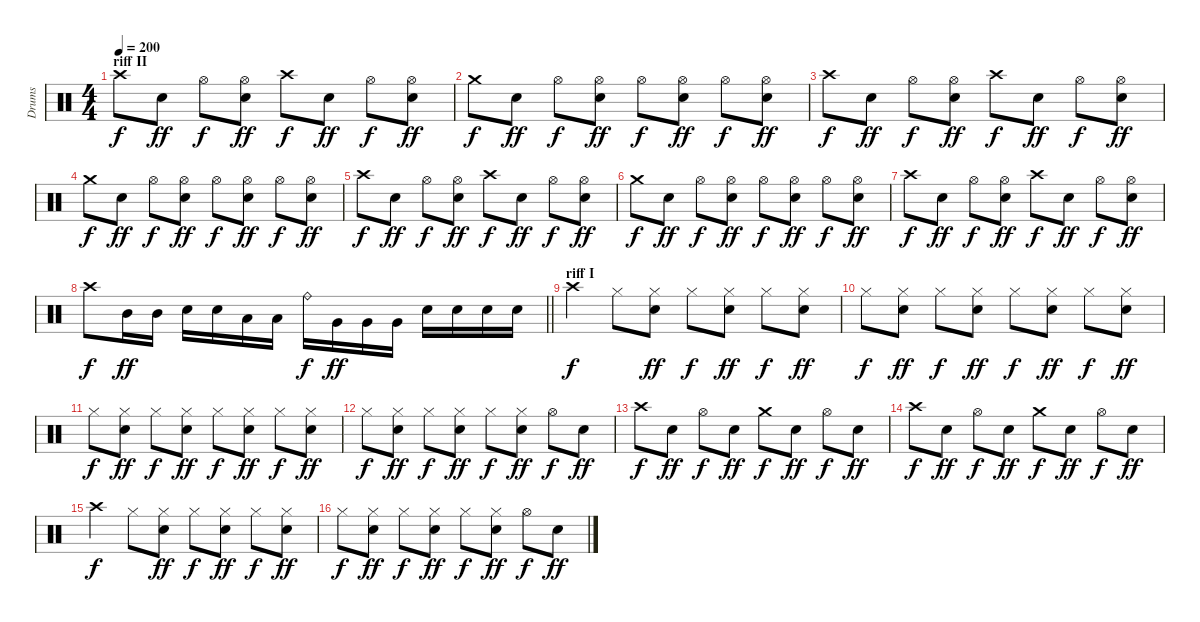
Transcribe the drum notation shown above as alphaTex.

\track ("Drums" "Drums") {instrument percussion}
\staff {score}
\articulation defaults
\ts (4 4)
\section ("" "riff II")
\tempo 200
\clef neutral
\ks c "Crash high (hit)".8{dy f} "Snare (hit) 2".8{dy ff} "Hi-Hat (open)".8{dy f}
("Hi-Hat (open)" "Snare (hit) 2").8{dy ff} "Crash high (hit)".8{dy f} "Snare (hit) 2".8{dy ff} "Hi-Hat (open)".8{dy f} ("Hi-Hat (open)" "Snare (hit) 2").8{dy ff} |
"Crash medium (hit)".8{dy f} "Snare (hit) 2".8{dy ff} "Hi-Hat (open)".8{dy f} ("Hi-Hat (open)" "Snare (hit) 2").8{dy ff} "Hi-Hat (open)".8{dy f} ("Hi-Hat (open)" "Snare (hit) 2").8{dy ff} "Hi-Hat (open)".8{dy f} ("Hi-Hat (open)" "Snare (hit) 2").8{dy ff} |
"Crash high (hit)".8{dy f} "Snare (hit) 2".8{dy ff} "Hi-Hat (open)".8{dy f} ("Hi-Hat (open)" "Snare (hit) 2").8{dy ff} "Crash high (hit)".8{dy f} "Snare (hit) 2".8{dy ff} "Hi-Hat (open)".8{dy f} ("Hi-Hat (open)" "Snare (hit) 2").8{dy ff} |
"Crash medium (hit)".8{dy f} "Snare (hit) 2".8{dy ff} "Hi-Hat (open)".8{dy f} ("Hi-Hat (open)" "Snare (hit) 2").8{dy ff} "Hi-Hat (open)".8{dy f} ("Hi-Hat (open)" "Snare (hit) 2").8{dy ff} "Hi-Hat (open)".8{dy f} ("Hi-Hat (open)" "Snare (hit) 2").8{dy ff} |
"Crash high (hit)".8{dy f} "Snare (hit) 2".8{dy ff} "Hi-Hat (open)".8{dy f} ("Hi-Hat (open)" "Snare (hit) 2").8{dy ff} "Crash high (hit)".8{dy f} "Snare (hit) 2".8{dy ff} "Hi-Hat (open)".8{dy f} ("Hi-Hat (open)" "Snare (hit) 2").8{dy ff} |
"Crash medium (hit)".8{dy f} "Snare (hit) 2".8{dy ff} "Hi-Hat (open)".8{dy f} ("Hi-Hat (open)" "Snare (hit) 2").8{dy ff} "Hi-Hat (open)".8{dy f} ("Hi-Hat (open)" "Snare (hit) 2").8{dy ff} "Hi-Hat (open)".8{dy f} ("Hi-Hat (open)" "Snare (hit) 2").8{dy ff} |
"Crash high (hit)".8{dy f} "Snare (hit) 2".8{dy ff} "Hi-Hat (open)".8{dy f} ("Hi-Hat (open)" "Snare (hit) 2").8{dy ff} "Crash high (hit)".8{dy f} "Snare (hit) 2".8{dy ff} "Hi-Hat (open)".8{dy f} ("Hi-Hat (open)" "Snare (hit) 2").8{dy ff} |
\barLineRight lightlight "Crash high (hit)".8{dy f} "Mid Tom (hit)".16{dy ff} "Mid Tom (hit)".16 "Snare (hit) 2".16 "Snare (hit) 2".16 "Low Tom (hit)".16 "Low Tom (hit)".16 "Ride (bell)".16{dy f} "Very Low Tom (hit)".16{dy ff} "Very Low Tom (hit)".16 "Very Low Tom (hit)".16 "Snare (hit) 2".16 "Snare (hit) 2".16 "Snare (hit) 2".16 "Snare (hit) 2".16
|
\section ("" "riff I")
"Crash high (hit)".4{dy f} "Hi-Hat (closed)".8 ("Hi-Hat (closed)" "Snare (hit) 2").8{dy ff} "Hi-Hat (closed)".8{dy f} ("Hi-Hat (closed)" "Snare (hit) 2").8{dy ff} "Hi-Hat (closed)".8{dy f} ("Hi-Hat (closed)" "Snare (hit) 2").8{dy ff} |
"Hi-Hat (closed)".8{dy f} ("Hi-Hat (closed)" "Snare (hit) 2").8{dy ff} "Hi-Hat (closed)".8{dy f} ("Hi-Hat (closed)" "Snare (hit) 2").8{dy ff} "Hi-Hat (closed)".8{dy f} ("Hi-Hat (closed)" "Snare (hit) 2").8{dy ff} "Hi-Hat (closed)".8{dy f} ("Hi-Hat (closed)" "Snare (hit) 2").8{dy ff} |
"Hi-Hat (closed)".8{dy f} ("Hi-Hat (closed)" "Snare (hit) 2").8{dy ff} "Hi-Hat (closed)".8{dy f} ("Hi-Hat (closed)" "Snare (hit) 2").8{dy ff} "Hi-Hat (closed)".8{dy f} ("Hi-Hat (closed)" "Snare (hit) 2").8{dy ff} "Hi-Hat (closed)".8{dy f} ("Hi-Hat (closed)" "Snare (hit) 2").8{dy ff} |
"Hi-Hat (closed)".8{dy f} ("Hi-Hat (closed)" "Snare (hit) 2").8{dy ff} "Hi-Hat (closed)".8{dy f} ("Hi-Hat (closed)" "Snare (hit) 2").8{dy ff} "Hi-Hat (closed)".8{dy f} ("Hi-Hat (closed)" "Snare (hit) 2").8{dy ff} "Hi-Hat (open)".8{dy f} "Snare (hit) 2".8{dy ff} |
"Crash high (hit)".8{dy f} "Snare (hit) 2".8{dy ff} "Hi-Hat (open)".8{dy f} "Snare (hit) 2".8{dy ff} "Crash medium (hit)".8{dy f} "Snare (hit) 2".8{dy ff} "Hi-Hat (open)".8{dy f} "Snare (hit) 2".8{dy ff} |
"Crash high (hit)".8{dy f} "Snare (hit) 2".8{dy ff} "Hi-Hat (open)".8{dy f} "Snare (hit) 2".8{dy ff} "Crash medium (hit)".8{dy f} "Snare (hit) 2".8{dy ff} "Hi-Hat (open)".8{dy f} "Snare (hit) 2".8{dy ff} |
"Crash high (hit)".4{dy f} "Hi-Hat (closed)".8 ("Hi-Hat (closed)" "Snare (hit) 2").8{dy ff} "Hi-Hat (closed)".8{dy f} ("Hi-Hat (closed)" "Snare (hit) 2").8{dy ff} "Hi-Hat (closed)".8{dy f} ("Hi-Hat (closed)" "Snare (hit) 2").8{dy ff} |
"Hi-Hat (closed)".8{dy f} ("Hi-Hat (closed)" "Snare (hit) 2").8{dy ff} "Hi-Hat (closed)".8{dy f} ("Hi-Hat (closed)" "Snare (hit) 2").8{dy ff} "Hi-Hat (closed)".8{dy f} ("Hi-Hat (closed)" "Snare (hit) 2").8{dy ff} "Hi-Hat (open)".8{dy f} "Snare (hit) 2".8{dy ff}
